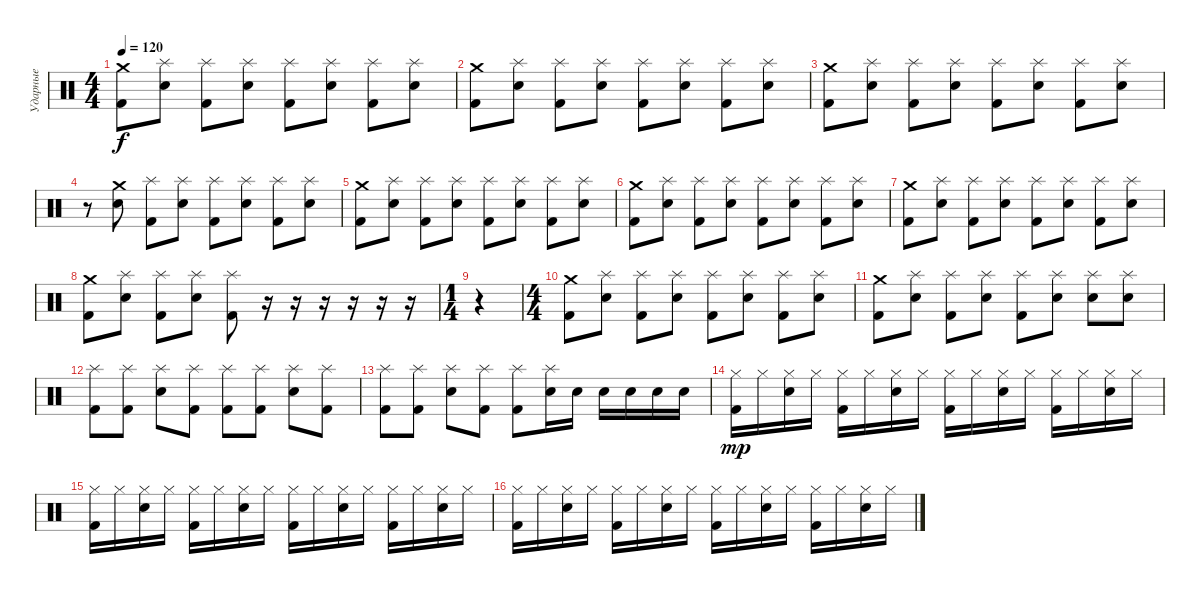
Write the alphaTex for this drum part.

\track ("Ударные" "Ударные") {instrument percussion}
\staff {score}
\articulation defaults
\ts (4 4)
\tempo 120
\clef neutral
\ks c
("Crash medium (hit)" "Kick (hit) 2").8{dy f} ("Splash (hit)" "Electric Snare (hit)").8 ("Splash (hit)" "Kick (hit) 2").8 ("Splash (hit)" "Electric Snare (hit)").8 ("Splash (hit)" "Kick (hit) 2").8 ("Splash (hit)" "Electric Snare (hit)").8 ("Splash (hit)" "Kick (hit) 2").8 ("Splash (hit)" "Electric Snare (hit)").8 |
("Crash medium (hit)" "Kick (hit) 2").8 ("Splash (hit)" "Electric Snare (hit)").8 ("Splash (hit)" "Kick (hit) 2").8 ("Splash (hit)" "Electric Snare (hit)").8 ("Splash (hit)" "Kick (hit) 2").8 ("Splash (hit)" "Electric Snare (hit)").8 ("Splash (hit)" "Kick (hit) 2").8 ("Splash (hit)" "Electric Snare (hit)").8 |
("Crash medium (hit)" "Kick (hit) 2").8 ("Splash (hit)" "Electric Snare (hit)").8 ("Splash (hit)" "Kick (hit) 2").8 ("Splash (hit)" "Electric Snare (hit)").8 ("Splash (hit)" "Kick (hit) 2").8 ("Splash (hit)" "Electric Snare (hit)").8 ("Splash (hit)" "Kick (hit) 2").8 ("Splash (hit)" "Electric Snare (hit)").8 |
r.8 ("Crash medium (hit)" "Electric Snare (hit)").8 ("Splash (hit)" "Kick (hit) 2").8 ("Splash (hit)" "Electric Snare (hit)").8 ("Splash (hit)" "Kick (hit) 2").8 ("Splash (hit)" "Electric Snare (hit)").8 ("Splash (hit)" "Kick (hit) 2").8 ("Splash (hit)" "Electric Snare (hit)").8 |
("Crash medium (hit)" "Kick (hit) 2").8 ("Splash (hit)" "Electric Snare (hit)").8 ("Splash (hit)" "Kick (hit) 2").8 ("Splash (hit)" "Electric Snare (hit)").8 ("Splash (hit)" "Kick (hit) 2").8 ("Splash (hit)" "Electric Snare (hit)").8 ("Splash (hit)" "Kick (hit) 2").8 ("Splash (hit)" "Electric Snare (hit)").8 |
("Crash medium (hit)" "Kick (hit) 2").8 ("Splash (hit)" "Electric Snare (hit)").8 ("Splash (hit)" "Kick (hit) 2").8 ("Splash (hit)" "Electric Snare (hit)").8 ("Splash (hit)" "Kick (hit) 2").8 ("Splash (hit)" "Electric Snare (hit)").8 ("Splash (hit)" "Kick (hit) 2").8 ("Splash (hit)" "Electric Snare (hit)").8 |
("Crash medium (hit)" "Kick (hit) 2").8 ("Splash (hit)" "Electric Snare (hit)").8 ("Splash (hit)" "Kick (hit) 2").8 ("Splash (hit)" "Electric Snare (hit)").8 ("Splash (hit)" "Kick (hit) 2").8 ("Splash (hit)" "Electric Snare (hit)").8 ("Splash (hit)" "Kick (hit) 2").8 ("Splash (hit)" "Electric Snare (hit)").8 |
("Crash medium (hit)" "Kick (hit) 2").8 ("Splash (hit)" "Electric Snare (hit)").8 ("Splash (hit)" "Kick (hit) 2").8 ("Splash (hit)" "Electric Snare (hit)").8 ("Splash (hit)" "Kick (hit) 2").8 r.16 r.16 r.16 r.16 r.16 r.16 |
\ts (1 4)
r.4 |
\ts (4 4)
("Crash medium (hit)" "Kick (hit) 2").8 ("Splash (hit)" "Electric Snare (hit)").8 ("Splash (hit)" "Kick (hit) 2").8 ("Splash (hit)" "Electric Snare (hit)").8 ("Splash (hit)" "Kick (hit) 2").8 ("Splash (hit)" "Electric Snare (hit)").8 ("Splash (hit)" "Kick (hit) 2").8 ("Splash (hit)" "Electric Snare (hit)").8 |
("Crash medium (hit)" "Kick (hit) 2").8 ("Splash (hit)" "Electric Snare (hit)").8 ("Splash (hit)" "Kick (hit) 2").8 ("Splash (hit)" "Electric Snare (hit)").8 ("Splash (hit)" "Kick (hit) 2").8 ("Splash (hit)" "Electric Snare (hit)").8 ("Splash (hit)" "Electric Snare (hit)").8 ("Splash (hit)" "Electric Snare (hit)").8 |
("Splash (hit)" "Kick (hit) 2").8 ("Splash (hit)" "Kick (hit) 2").8 ("Splash (hit)" "Electric Snare (hit)").8 ("Splash (hit)" "Kick (hit) 2").8 ("Splash (hit)" "Kick (hit) 2").8 ("Splash (hit)" "Kick (hit) 2").8 ("Splash (hit)" "Electric Snare (hit)").8 ("Splash (hit)" "Kick (hit) 2").8 |
("Splash (hit)" "Kick (hit) 2").8 ("Splash (hit)" "Kick (hit) 2").8 ("Splash (hit)" "Electric Snare (hit)").8 ("Splash (hit)" "Kick (hit) 2").8 ("Splash (hit)" "Kick (hit) 2").8 ("Splash (hit)" "Electric Snare (hit)").16 "Electric Snare (hit)".16 "Electric Snare (hit)".16 "Electric Snare (hit)".16 "Electric Snare (hit)".16 "Electric Snare (hit)".16 |
("Hi-Hat (closed)" "Kick (hit) 2").16{dy mp} "Hi-Hat (closed)".16 ("Hi-Hat (closed)" "Electric Snare (hit)").16 "Hi-Hat (closed)".16 ("Hi-Hat (closed)" "Kick (hit) 2").16 "Hi-Hat (closed)".16 ("Hi-Hat (closed)" "Electric Snare (hit)").16 "Hi-Hat (closed)".16 ("Hi-Hat (closed)" "Kick (hit) 2").16 "Hi-Hat (closed)".16 ("Hi-Hat (closed)" "Electric Snare (hit)").16 "Hi-Hat (closed)".16 ("Hi-Hat (closed)" "Kick (hit) 2").16 "Hi-Hat (closed)".16 ("Hi-Hat (closed)" "Electric Snare (hit)").16 "Hi-Hat (closed)".16 |
("Hi-Hat (closed)" "Kick (hit) 2").16 "Hi-Hat (closed)".16 ("Hi-Hat (closed)" "Electric Snare (hit)").16 "Hi-Hat (closed)".16 ("Hi-Hat (closed)" "Kick (hit) 2").16 "Hi-Hat (closed)".16 ("Hi-Hat (closed)" "Electric Snare (hit)").16 "Hi-Hat (closed)".16 ("Hi-Hat (closed)" "Kick (hit) 2").16 "Hi-Hat (closed)".16 ("Hi-Hat (closed)" "Electric Snare (hit)").16 "Hi-Hat (closed)".16 ("Hi-Hat (closed)" "Kick (hit) 2").16 "Hi-Hat (closed)".16 ("Hi-Hat (closed)" "Electric Snare (hit)").16 "Hi-Hat (closed)".16 |
("Hi-Hat (closed)" "Kick (hit) 2").16 "Hi-Hat (closed)".16 ("Hi-Hat (closed)" "Electric Snare (hit)").16 "Hi-Hat (closed)".16 ("Hi-Hat (closed)" "Kick (hit) 2").16 "Hi-Hat (closed)".16 ("Hi-Hat (closed)" "Electric Snare (hit)").16 "Hi-Hat (closed)".16 ("Hi-Hat (closed)" "Kick (hit) 2").16 "Hi-Hat (closed)".16 ("Hi-Hat (closed)" "Electric Snare (hit)").16 "Hi-Hat (closed)".16 ("Hi-Hat (closed)" "Kick (hit) 2").16 "Hi-Hat (closed)".16 ("Hi-Hat (closed)" "Electric Snare (hit)").16 "Hi-Hat (closed)".16
